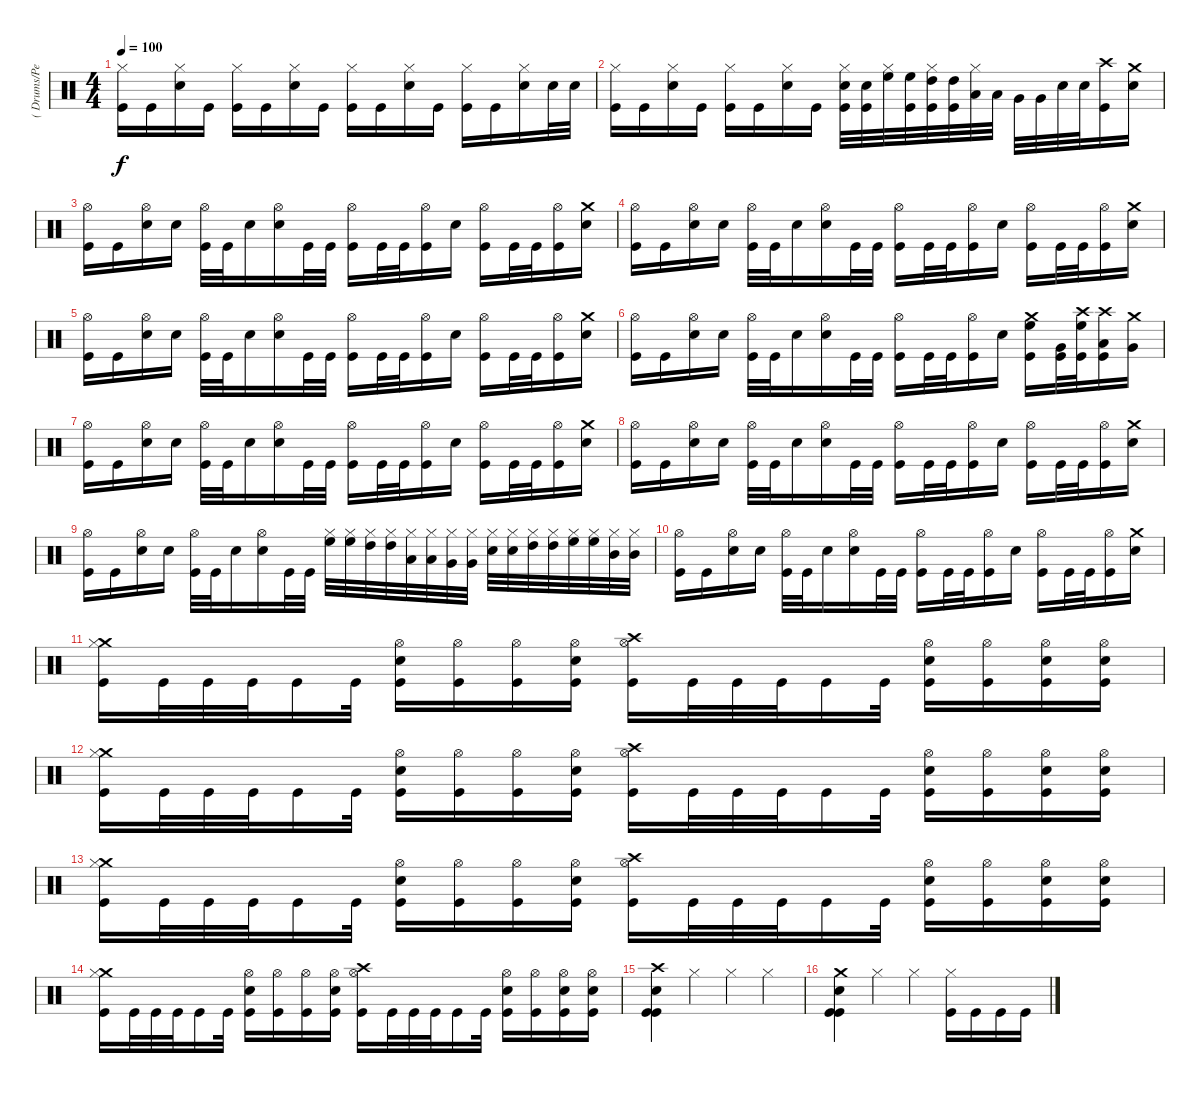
\track ("( Drums/Percussion )" "( Drums/Pe") {instrument percussion}
\staff {score}
\articulation defaults
\ts (4 4)
\tempo 100
\clef neutral
\ks c
("Hi-Hat (closed)" "Kick (hit)").16{dy f} "Kick (hit)".16 ("Hi-Hat (closed)" "Snare (hit) 2").16 "Kick (hit)".16 ("Hi-Hat (closed)" "Kick (hit)").16 "Kick (hit)".16 ("Hi-Hat (closed)" "Snare (hit) 2").16 "Kick (hit)".16 ("Hi-Hat (closed)" "Kick (hit)").16 "Kick (hit)".16 ("Hi-Hat (closed)" "Snare (hit) 2").16 "Kick (hit)".16 ("Hi-Hat (closed)" "Kick (hit)").16 "Kick (hit)".16 ("Hi-Hat (closed)" "Snare (hit) 2").16 "Snare (hit) 2".32 "Snare (hit) 2".32 |
("Hi-Hat (closed)" "Kick (hit)").16 "Kick (hit)".16 ("Hi-Hat (closed)" "Snare (hit) 2").16 "Kick (hit)".16 ("Hi-Hat (closed)" "Kick (hit)").16 "Kick (hit)".16 ("Hi-Hat (closed)" "Snare (hit) 2").16 "Kick (hit)".16 ("Hi-Hat (closed)" "Snare (hit) 2" "Kick (hit)").32 ("Snare (hit) 2" "Kick (hit)").32 ("Hi-Hat (closed)" "High Floor Tom (hit)").32 ("High Floor Tom (hit)" "Kick (hit)").32 ("Hi-Hat (closed)" "High Tom (hit)" "Kick (hit)").32 ("High Tom (hit)" "Kick (hit)").32 ("Hi-Hat (closed)" "Low Tom (hit)").32 "Low Tom (hit)".32 "Very Low Tom (hit)".32 "Very Low Tom (hit)".32 "Snare (hit) 2".32 "Snare (hit) 2".32 ("Crash high (hit)" "Kick (hit)").16 ("Crash medium (hit)" "Snare (hit) 2").16 |
("Hi-Hat (open)" "Kick (hit)").16 "Kick (hit)".16 ("Hi-Hat (open)" "Snare (hit) 2").16 "Snare (hit) 2".16 ("Hi-Hat (open)" "Kick (hit)").32 "Kick (hit)".32 "Snare (hit) 2".16 ("Hi-Hat (open)" "Snare (hit) 2").16 "Kick (hit)".32 "Kick (hit)".32 ("Hi-Hat (open)" "Kick (hit)").16 "Kick (hit)".32 "Kick (hit)".32 ("Hi-Hat (open)" "Kick (hit)").16 "Snare (hit) 2".16 ("Hi-Hat (open)" "Kick (hit)").16 "Kick (hit)".32 "Kick (hit)".32 ("Hi-Hat (open)" "Kick (hit)").16 ("Crash medium (hit)" "Snare (hit) 2").16 |
("Hi-Hat (open)" "Kick (hit)").16 "Kick (hit)".16 ("Hi-Hat (open)" "Snare (hit) 2").16 "Snare (hit) 2".16 ("Hi-Hat (open)" "Kick (hit)").32 "Kick (hit)".32 "Snare (hit) 2".16 ("Hi-Hat (open)" "Snare (hit) 2").16 "Kick (hit)".32 "Kick (hit)".32 ("Hi-Hat (open)" "Kick (hit)").16 "Kick (hit)".32 "Kick (hit)".32 ("Hi-Hat (open)" "Kick (hit)").16 "Snare (hit) 2".16 ("Hi-Hat (open)" "Kick (hit)").16 "Kick (hit)".32 "Kick (hit)".32 ("Hi-Hat (open)" "Kick (hit)").16 ("Crash medium (hit)" "Snare (hit) 2").16 |
("Hi-Hat (open)" "Kick (hit)").16 "Kick (hit)".16 ("Hi-Hat (open)" "Snare (hit) 2").16 "Snare (hit) 2".16 ("Hi-Hat (open)" "Kick (hit)").32 "Kick (hit)".32 "Snare (hit) 2".16 ("Hi-Hat (open)" "Snare (hit) 2").16 "Kick (hit)".32 "Kick (hit)".32 ("Hi-Hat (open)" "Kick (hit)").16 "Kick (hit)".32 "Kick (hit)".32 ("Hi-Hat (open)" "Kick (hit)").16 "Snare (hit) 2".16 ("Hi-Hat (open)" "Kick (hit)").16 "Kick (hit)".32 "Kick (hit)".32 ("Hi-Hat (open)" "Kick (hit)").16 ("Crash medium (hit)" "Snare (hit) 2").16 |
("Hi-Hat (open)" "Kick (hit)").16 "Kick (hit)".16 ("Hi-Hat (open)" "Snare (hit) 2").16 "Snare (hit) 2".16 ("Hi-Hat (open)" "Kick (hit)").32 "Kick (hit)".32 "Snare (hit) 2".16 ("Hi-Hat (open)" "Snare (hit) 2").16 "Kick (hit)".32 "Kick (hit)".32 ("Hi-Hat (open)" "Kick (hit)").16 "Kick (hit)".32 "Kick (hit)".32 ("Hi-Hat (open)" "Kick (hit)").16 "Snare (hit) 2".16 ("Crash medium (hit)" "High Floor Tom (hit)" "Kick (hit)").16 ("Very Low Tom (hit)" "Kick (hit)").32 ("Crash high (hit)" "High Floor Tom (hit)" "Kick (hit)").32 ("Crash high (hit)" "Low Tom (hit)" "Kick (hit)").16 ("Crash medium (hit)" "Very Low Tom (hit)").16 |
("Hi-Hat (open)" "Kick (hit)").16 "Kick (hit)".16 ("Hi-Hat (open)" "Snare (hit) 2").16 "Snare (hit) 2".16 ("Hi-Hat (open)" "Kick (hit)").32 "Kick (hit)".32 "Snare (hit) 2".16 ("Hi-Hat (open)" "Snare (hit) 2").16 "Kick (hit)".32 "Kick (hit)".32 ("Hi-Hat (open)" "Kick (hit)").16 "Kick (hit)".32 "Kick (hit)".32 ("Hi-Hat (open)" "Kick (hit)").16 "Snare (hit) 2".16 ("Hi-Hat (open)" "Kick (hit)").16 "Kick (hit)".32 "Kick (hit)".32 ("Hi-Hat (open)" "Kick (hit)").16 ("Crash medium (hit)" "Snare (hit) 2").16 |
("Hi-Hat (open)" "Kick (hit)").16 "Kick (hit)".16 ("Hi-Hat (open)" "Snare (hit) 2").16 "Snare (hit) 2".16 ("Hi-Hat (open)" "Kick (hit)").32 "Kick (hit)".32 "Snare (hit) 2".16 ("Hi-Hat (open)" "Snare (hit) 2").16 "Kick (hit)".32 "Kick (hit)".32 ("Hi-Hat (open)" "Kick (hit)").16 "Kick (hit)".32 "Kick (hit)".32 ("Hi-Hat (open)" "Kick (hit)").16 "Snare (hit) 2".16 ("Hi-Hat (open)" "Kick (hit)").16 "Kick (hit)".32 "Kick (hit)".32 ("Hi-Hat (open)" "Kick (hit)").16 ("Crash medium (hit)" "Snare (hit) 2").16 |
("Hi-Hat (open)" "Kick (hit)").16 "Kick (hit)".16 ("Hi-Hat (open)" "Snare (hit) 2").16 "Snare (hit) 2".16 ("Hi-Hat (open)" "Kick (hit)").32 "Kick (hit)".32 "Snare (hit) 2".16 ("Hi-Hat (open)" "Snare (hit) 2").16 "Kick (hit)".32 "Kick (hit)".32 ("Hi-Hat (closed)" "High Floor Tom (hit)").32 ("Hi-Hat (closed)" "High Floor Tom (hit)").32 ("Hi-Hat (closed)" "High Tom (hit)").32 ("Hi-Hat (closed)" "High Tom (hit)").32 ("Hi-Hat (closed)" "Low Tom (hit)").32 ("Hi-Hat (closed)" "Low Tom (hit)").32 ("Hi-Hat (closed)" "Very Low Tom (hit)").32 ("Hi-Hat (closed)" "Very Low Tom (hit)").32 ("Hi-Hat (closed)" "Snare (hit) 2").32 ("Hi-Hat (closed)" "Snare (hit) 2").32 ("Hi-Hat (closed)" "High Tom (hit)").32 ("Hi-Hat (closed)" "High Tom (hit)").32 ("Hi-Hat (closed)" "High Floor Tom (hit)").32 ("Hi-Hat (closed)" "High Floor Tom (hit)").32 ("Hi-Hat (closed)" "Mid Tom (hit)").32 ("Hi-Hat (closed)" "Mid Tom (hit)").32 |
("Hi-Hat (open)" "Kick (hit)").16 "Kick (hit)".16 ("Hi-Hat (open)" "Snare (hit) 2").16 "Snare (hit) 2".16 ("Hi-Hat (open)" "Kick (hit)").32 "Kick (hit)".32 "Snare (hit) 2".16 ("Hi-Hat (open)" "Snare (hit) 2").16 "Kick (hit)".32 "Kick (hit)".32 ("Hi-Hat (open)" "Kick (hit)").16 "Kick (hit)".32 "Kick (hit)".32 ("Hi-Hat (open)" "Kick (hit)").16 "Snare (hit) 2".16 ("Hi-Hat (open)" "Kick (hit)").16 "Kick (hit)".32 "Kick (hit)".32 ("Hi-Hat (open)" "Kick (hit)").16 ("Crash medium (hit)" "Snare (hit) 2").16 |
("Crash medium (hit)" "Hi-Hat (closed)" "Kick (hit)").16 "Kick (hit)".32 "Kick (hit)".32 "Kick (hit)".32 "Kick (hit)".16 "Kick (hit)".32 ("Hi-Hat (open)" "Snare (hit) 2" "Kick (hit)").16 ("Hi-Hat (open)" "Kick (hit)").16 ("Hi-Hat (open)" "Kick (hit)").16 ("Hi-Hat (open)" "Snare (hit) 2" "Kick (hit)").16 ("Crash high (hit)" "Hi-Hat (open)" "Kick (hit)").16 "Kick (hit)".32 "Kick (hit)".32 "Kick (hit)".32 "Kick (hit)".16 "Kick (hit)".32 ("Hi-Hat (open)" "Snare (hit) 2" "Kick (hit)").16 ("Hi-Hat (open)" "Kick (hit)").16 ("Hi-Hat (open)" "Snare (hit) 2" "Kick (hit)").16 ("Hi-Hat (open)" "Snare (hit) 2" "Kick (hit)").16 |
("Crash medium (hit)" "Hi-Hat (closed)" "Kick (hit)").16 "Kick (hit)".32 "Kick (hit)".32 "Kick (hit)".32 "Kick (hit)".16 "Kick (hit)".32 ("Hi-Hat (open)" "Snare (hit) 2" "Kick (hit)").16 ("Hi-Hat (open)" "Kick (hit)").16 ("Hi-Hat (open)" "Kick (hit)").16 ("Hi-Hat (open)" "Snare (hit) 2" "Kick (hit)").16 ("Crash high (hit)" "Hi-Hat (open)" "Kick (hit)").16 "Kick (hit)".32 "Kick (hit)".32 "Kick (hit)".32 "Kick (hit)".16 "Kick (hit)".32 ("Hi-Hat (open)" "Snare (hit) 2" "Kick (hit)").16 ("Hi-Hat (open)" "Kick (hit)").16 ("Hi-Hat (open)" "Snare (hit) 2" "Kick (hit)").16 ("Hi-Hat (open)" "Snare (hit) 2" "Kick (hit)").16 |
("Crash medium (hit)" "Hi-Hat (closed)" "Kick (hit)").16 "Kick (hit)".32 "Kick (hit)".32 "Kick (hit)".32 "Kick (hit)".16 "Kick (hit)".32 ("Hi-Hat (open)" "Snare (hit) 2" "Kick (hit)").16 ("Hi-Hat (open)" "Kick (hit)").16 ("Hi-Hat (open)" "Kick (hit)").16 ("Hi-Hat (open)" "Snare (hit) 2" "Kick (hit)").16 ("Crash high (hit)" "Hi-Hat (open)" "Kick (hit)").16 "Kick (hit)".32 "Kick (hit)".32 "Kick (hit)".32 "Kick (hit)".16 "Kick (hit)".32 ("Hi-Hat (open)" "Snare (hit) 2" "Kick (hit)").16 ("Hi-Hat (open)" "Kick (hit)").16 ("Hi-Hat (open)" "Snare (hit) 2" "Kick (hit)").16 ("Hi-Hat (open)" "Snare (hit) 2" "Kick (hit)").16 |
("Crash medium (hit)" "Hi-Hat (closed)" "Kick (hit)").16 "Kick (hit)".32 "Kick (hit)".32 "Kick (hit)".32 "Kick (hit)".16 "Kick (hit)".32 ("Hi-Hat (open)" "Snare (hit) 2" "Kick (hit)").16 ("Hi-Hat (open)" "Kick (hit)").16 ("Hi-Hat (open)" "Kick (hit)").16 ("Hi-Hat (open)" "Snare (hit) 2" "Kick (hit)").16 ("Crash high (hit)" "Hi-Hat (open)" "Kick (hit)").16 "Kick (hit)".32 "Kick (hit)".32 "Kick (hit)".32 "Kick (hit)".16 "Kick (hit)".32 ("Hi-Hat (open)" "Snare (hit) 2" "Kick (hit)").16 ("Hi-Hat (open)" "Kick (hit)").16 ("Hi-Hat (open)" "Snare (hit) 2" "Kick (hit)").16 ("Hi-Hat (open)" "Snare (hit) 2" "Kick (hit)").16 |
("Crash high (hit)" "Kick (hit)" "Snare (hit) 2" "Kick (hit)").4 "Hi-Hat (closed)".4 "Hi-Hat (closed)".4 "Hi-Hat (closed)".4 |
("Crash medium (hit)" "Kick (hit)" "Snare (hit) 2" "Kick (hit)").4 "Hi-Hat (closed)".4 "Hi-Hat (closed)".4 ("Hi-Hat (closed)" "Kick (hit)").16 "Kick (hit)".16 "Kick (hit)".16 "Kick (hit)".16
